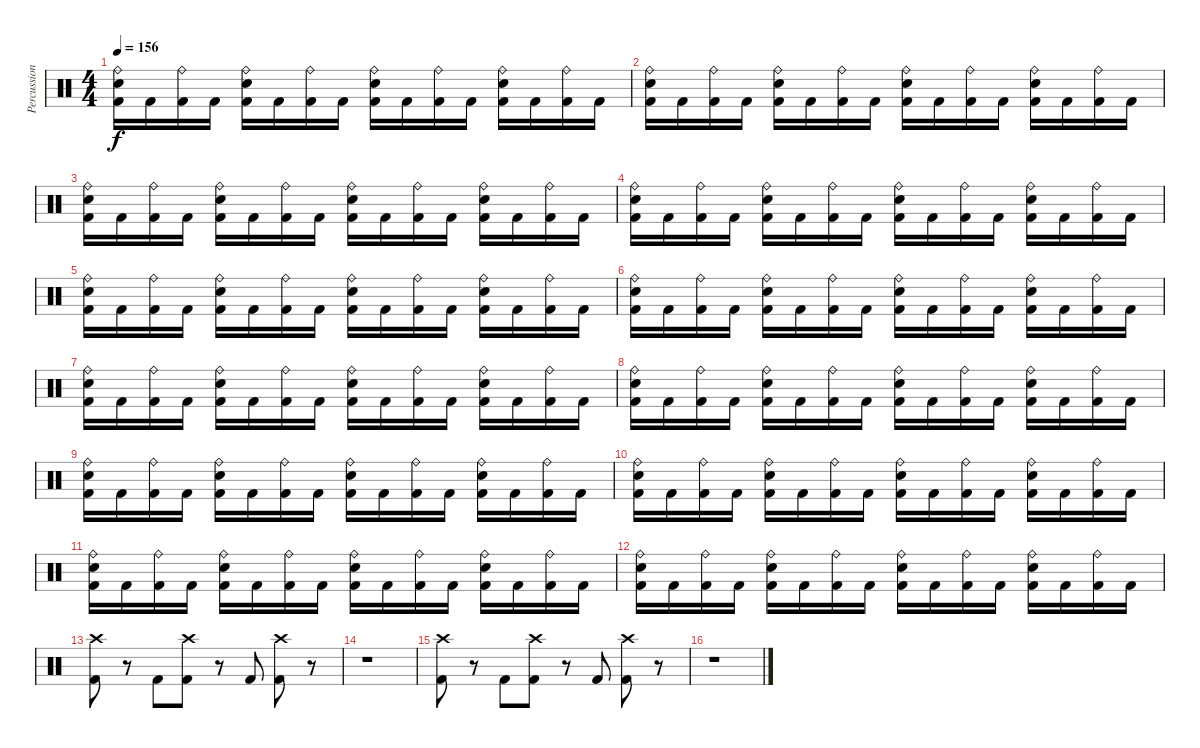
\track ("Percussion" "Percussion") {instrument percussion}
\staff {score}
\articulation defaults
\ts (4 4)
\tempo 156
\clef neutral
\ks c
("Ride (bell)" "Snare (hit) 2" "Kick (hit) 2").16{dy f} "Kick (hit) 2".16 ("Ride (bell)" "Kick (hit) 2").16 "Kick (hit) 2".16 ("Ride (bell)" "Snare (hit) 2" "Kick (hit) 2").16 "Kick (hit) 2".16 ("Ride (bell)" "Kick (hit) 2").16 "Kick (hit) 2".16 ("Ride (bell)" "Snare (hit) 2" "Kick (hit) 2").16 "Kick (hit) 2".16 ("Ride (bell)" "Kick (hit) 2").16 "Kick (hit) 2".16 ("Ride (bell)" "Snare (hit) 2" "Kick (hit) 2").16 "Kick (hit) 2".16 ("Ride (bell)" "Kick (hit) 2").16 "Kick (hit) 2".16 |
("Ride (bell)" "Snare (hit) 2" "Kick (hit) 2").16 "Kick (hit) 2".16 ("Ride (bell)" "Kick (hit) 2").16 "Kick (hit) 2".16 ("Ride (bell)" "Snare (hit) 2" "Kick (hit) 2").16 "Kick (hit) 2".16 ("Ride (bell)" "Kick (hit) 2").16 "Kick (hit) 2".16 ("Ride (bell)" "Snare (hit) 2" "Kick (hit) 2").16 "Kick (hit) 2".16 ("Ride (bell)" "Kick (hit) 2").16 "Kick (hit) 2".16 ("Ride (bell)" "Snare (hit) 2" "Kick (hit) 2").16 "Kick (hit) 2".16 ("Ride (bell)" "Kick (hit) 2").16 "Kick (hit) 2".16 |
("Ride (bell)" "Snare (hit) 2" "Kick (hit) 2").16 "Kick (hit) 2".16 ("Ride (bell)" "Kick (hit) 2").16 "Kick (hit) 2".16 ("Ride (bell)" "Snare (hit) 2" "Kick (hit) 2").16 "Kick (hit) 2".16 ("Ride (bell)" "Kick (hit) 2").16 "Kick (hit) 2".16 ("Ride (bell)" "Snare (hit) 2" "Kick (hit) 2").16 "Kick (hit) 2".16 ("Ride (bell)" "Kick (hit) 2").16 "Kick (hit) 2".16 ("Ride (bell)" "Snare (hit) 2" "Kick (hit) 2").16 "Kick (hit) 2".16 ("Ride (bell)" "Kick (hit) 2").16 "Kick (hit) 2".16 |
("Ride (bell)" "Snare (hit) 2" "Kick (hit) 2").16 "Kick (hit) 2".16 ("Ride (bell)" "Kick (hit) 2").16 "Kick (hit) 2".16 ("Ride (bell)" "Snare (hit) 2" "Kick (hit) 2").16 "Kick (hit) 2".16 ("Ride (bell)" "Kick (hit) 2").16 "Kick (hit) 2".16 ("Ride (bell)" "Snare (hit) 2" "Kick (hit) 2").16 "Kick (hit) 2".16 ("Ride (bell)" "Kick (hit) 2").16 "Kick (hit) 2".16 ("Ride (bell)" "Snare (hit) 2" "Kick (hit) 2").16 "Kick (hit) 2".16 ("Ride (bell)" "Kick (hit) 2").16 "Kick (hit) 2".16 |
("Ride (bell)" "Snare (hit) 2" "Kick (hit) 2").16 "Kick (hit) 2".16 ("Ride (bell)" "Kick (hit) 2").16 "Kick (hit) 2".16 ("Ride (bell)" "Snare (hit) 2" "Kick (hit) 2").16 "Kick (hit) 2".16 ("Ride (bell)" "Kick (hit) 2").16 "Kick (hit) 2".16 ("Ride (bell)" "Snare (hit) 2" "Kick (hit) 2").16 "Kick (hit) 2".16 ("Ride (bell)" "Kick (hit) 2").16 "Kick (hit) 2".16 ("Ride (bell)" "Snare (hit) 2" "Kick (hit) 2").16 "Kick (hit) 2".16 ("Ride (bell)" "Kick (hit) 2").16 "Kick (hit) 2".16 |
("Ride (bell)" "Snare (hit) 2" "Kick (hit) 2").16 "Kick (hit) 2".16 ("Ride (bell)" "Kick (hit) 2").16 "Kick (hit) 2".16 ("Ride (bell)" "Snare (hit) 2" "Kick (hit) 2").16 "Kick (hit) 2".16 ("Ride (bell)" "Kick (hit) 2").16 "Kick (hit) 2".16 ("Ride (bell)" "Snare (hit) 2" "Kick (hit) 2").16 "Kick (hit) 2".16 ("Ride (bell)" "Kick (hit) 2").16 "Kick (hit) 2".16 ("Ride (bell)" "Snare (hit) 2" "Kick (hit) 2").16 "Kick (hit) 2".16 ("Ride (bell)" "Kick (hit) 2").16 "Kick (hit) 2".16 |
("Ride (bell)" "Snare (hit) 2" "Kick (hit) 2").16 "Kick (hit) 2".16 ("Ride (bell)" "Kick (hit) 2").16 "Kick (hit) 2".16 ("Ride (bell)" "Snare (hit) 2" "Kick (hit) 2").16 "Kick (hit) 2".16 ("Ride (bell)" "Kick (hit) 2").16 "Kick (hit) 2".16 ("Ride (bell)" "Snare (hit) 2" "Kick (hit) 2").16 "Kick (hit) 2".16 ("Ride (bell)" "Kick (hit) 2").16 "Kick (hit) 2".16 ("Ride (bell)" "Snare (hit) 2" "Kick (hit) 2").16 "Kick (hit) 2".16 ("Ride (bell)" "Kick (hit) 2").16 "Kick (hit) 2".16 |
("Ride (bell)" "Snare (hit) 2" "Kick (hit) 2").16 "Kick (hit) 2".16 ("Ride (bell)" "Kick (hit) 2").16 "Kick (hit) 2".16 ("Ride (bell)" "Snare (hit) 2" "Kick (hit) 2").16 "Kick (hit) 2".16 ("Ride (bell)" "Kick (hit) 2").16 "Kick (hit) 2".16 ("Ride (bell)" "Snare (hit) 2" "Kick (hit) 2").16 "Kick (hit) 2".16 ("Ride (bell)" "Kick (hit) 2").16 "Kick (hit) 2".16 ("Ride (bell)" "Snare (hit) 2" "Kick (hit) 2").16 "Kick (hit) 2".16 ("Ride (bell)" "Kick (hit) 2").16 "Kick (hit) 2".16 |
("Ride (bell)" "Snare (hit) 2" "Kick (hit) 2").16 "Kick (hit) 2".16 ("Ride (bell)" "Kick (hit) 2").16 "Kick (hit) 2".16 ("Ride (bell)" "Snare (hit) 2" "Kick (hit) 2").16 "Kick (hit) 2".16 ("Ride (bell)" "Kick (hit) 2").16 "Kick (hit) 2".16 ("Ride (bell)" "Snare (hit) 2" "Kick (hit) 2").16 "Kick (hit) 2".16 ("Ride (bell)" "Kick (hit) 2").16 "Kick (hit) 2".16 ("Ride (bell)" "Snare (hit) 2" "Kick (hit) 2").16 "Kick (hit) 2".16 ("Ride (bell)" "Kick (hit) 2").16 "Kick (hit) 2".16 |
("Ride (bell)" "Snare (hit) 2" "Kick (hit) 2").16 "Kick (hit) 2".16 ("Ride (bell)" "Kick (hit) 2").16 "Kick (hit) 2".16 ("Ride (bell)" "Snare (hit) 2" "Kick (hit) 2").16 "Kick (hit) 2".16 ("Ride (bell)" "Kick (hit) 2").16 "Kick (hit) 2".16 ("Ride (bell)" "Snare (hit) 2" "Kick (hit) 2").16 "Kick (hit) 2".16 ("Ride (bell)" "Kick (hit) 2").16 "Kick (hit) 2".16 ("Ride (bell)" "Snare (hit) 2" "Kick (hit) 2").16 "Kick (hit) 2".16 ("Ride (bell)" "Kick (hit) 2").16 "Kick (hit) 2".16 |
("Ride (bell)" "Snare (hit) 2" "Kick (hit) 2").16 "Kick (hit) 2".16 ("Ride (bell)" "Kick (hit) 2").16 "Kick (hit) 2".16 ("Ride (bell)" "Snare (hit) 2" "Kick (hit) 2").16 "Kick (hit) 2".16 ("Ride (bell)" "Kick (hit) 2").16 "Kick (hit) 2".16 ("Ride (bell)" "Snare (hit) 2" "Kick (hit) 2").16 "Kick (hit) 2".16 ("Ride (bell)" "Kick (hit) 2").16 "Kick (hit) 2".16 ("Ride (bell)" "Snare (hit) 2" "Kick (hit) 2").16 "Kick (hit) 2".16 ("Ride (bell)" "Kick (hit) 2").16 "Kick (hit) 2".16 |
("Ride (bell)" "Snare (hit) 2" "Kick (hit) 2").16 "Kick (hit) 2".16 ("Ride (bell)" "Kick (hit) 2").16 "Kick (hit) 2".16 ("Ride (bell)" "Snare (hit) 2" "Kick (hit) 2").16 "Kick (hit) 2".16 ("Ride (bell)" "Kick (hit) 2").16 "Kick (hit) 2".16 ("Ride (bell)" "Snare (hit) 2" "Kick (hit) 2").16 "Kick (hit) 2".16 ("Ride (bell)" "Kick (hit) 2").16 "Kick (hit) 2".16 ("Ride (bell)" "Snare (hit) 2" "Kick (hit) 2").16 "Kick (hit) 2".16 ("Ride (bell)" "Kick (hit) 2").16 "Kick (hit) 2".16 |
("Crash high (hit)" "Kick (hit) 2").8 r.8 "Kick (hit) 2".8 ("Crash high (hit)" "Kick (hit) 2").8 r.8 "Kick (hit) 2".8 ("Crash high (hit)" "Kick (hit) 2").8 r.8 |
r.1 |
("Crash high (hit)" "Kick (hit) 2").8 r.8 "Kick (hit) 2".8 ("Crash high (hit)" "Kick (hit) 2").8 r.8 "Kick (hit) 2".8 ("Crash high (hit)" "Kick (hit) 2").8 r.8 |
r.1
